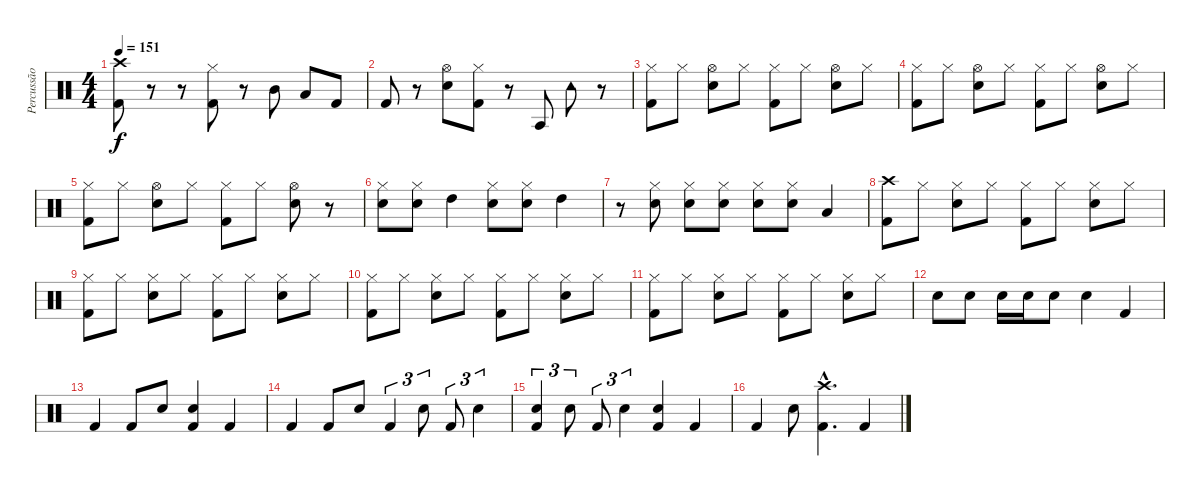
\track ("Percussão" "Percussão") {instrument percussion}
\staff {score}
\articulation defaults
\ts (4 4)
\tempo 151
\clef neutral
\ks c
("Kick (hit) 2" "Crash high (hit)").8{dy f} r.8 r.8 ("Kick (hit) 2" "Hi-Hat (closed)").8 r.8 "Mid Tom (hit)".8 "Low Tom (hit)".8 "Kick (hit) 2".8 |
"Kick (hit) 2".8 r.8 ("Snare (hit) 2" "Hi-Hat (open)").8 ("Kick (hit) 2" "Hi-Hat (closed)").8 r.8 "Agogo tow (hit)".8 "Tambourine (hit)".8 r.8 |
("Kick (hit) 2" "Hi-Hat (closed)").8 "Hi-Hat (closed)".8 ("Snare (hit) 2" "Hi-Hat (open)").8 "Hi-Hat (closed)".8 ("Kick (hit) 2" "Hi-Hat (closed)").8 "Hi-Hat (closed)".8 ("Snare (hit) 2" "Hi-Hat (open)").8 "Hi-Hat (closed)".8 |
("Kick (hit) 2" "Hi-Hat (closed)").8 "Hi-Hat (closed)".8 ("Snare (hit) 2" "Hi-Hat (open)").8 "Hi-Hat (closed)".8 ("Kick (hit) 2" "Hi-Hat (closed)").8 "Hi-Hat (closed)".8 ("Snare (hit) 2" "Hi-Hat (open)").8 "Hi-Hat (closed)".8 |
("Kick (hit) 2" "Hi-Hat (closed)").8 "Hi-Hat (closed)".8 ("Snare (hit) 2" "Hi-Hat (open)").8 "Hi-Hat (closed)".8 ("Kick (hit) 2" "Hi-Hat (closed)").8 "Hi-Hat (closed)".8 ("Snare (hit) 2" "Hi-Hat (open)").8 r.8 |
("Snare (hit) 2" "Hi-Hat (closed)").8 ("Snare (hit) 2" "Hi-Hat (closed)").8 "High Tom (hit)".4 ("Snare (hit) 2" "Hi-Hat (closed)").8 ("Snare (hit) 2" "Hi-Hat (closed)").8 "High Tom (hit)".4 |
r.8 ("Snare (hit) 2" "Hi-Hat (closed)").8 ("Snare (hit) 2" "Hi-Hat (closed)").8 ("Snare (hit) 2" "Hi-Hat (closed)").8 ("Snare (hit) 2" "Hi-Hat (closed)").8 ("Snare (hit) 2" "Hi-Hat (closed)").8 "Low Tom (hit)".4 |
("Kick (hit) 2" "Crash high (hit)").8 "Hi-Hat (closed)".8 ("Snare (hit) 2" "Hi-Hat (closed)").8 "Hi-Hat (closed)".8 ("Kick (hit) 2" "Hi-Hat (closed)").8 "Hi-Hat (closed)".8 ("Snare (hit) 2" "Hi-Hat (closed)").8 "Hi-Hat (closed)".8 |
("Kick (hit) 2" "Hi-Hat (closed)").8 "Hi-Hat (closed)".8 ("Snare (hit) 2" "Hi-Hat (closed)").8 "Hi-Hat (closed)".8 ("Kick (hit) 2" "Hi-Hat (closed)").8 "Hi-Hat (closed)".8 ("Snare (hit) 2" "Hi-Hat (closed)").8 "Hi-Hat (closed)".8 |
("Kick (hit) 2" "Hi-Hat (closed)").8 "Hi-Hat (closed)".8 ("Snare (hit) 2" "Hi-Hat (closed)").8 "Hi-Hat (closed)".8 ("Kick (hit) 2" "Hi-Hat (closed)").8 "Hi-Hat (closed)".8 ("Snare (hit) 2" "Hi-Hat (closed)").8 "Hi-Hat (closed)".8 |
("Kick (hit) 2" "Hi-Hat (closed)").8 "Hi-Hat (closed)".8 ("Snare (hit) 2" "Hi-Hat (closed)").8 "Hi-Hat (closed)".8 ("Kick (hit) 2" "Hi-Hat (closed)").8 "Hi-Hat (closed)".8 ("Snare (hit) 2" "Hi-Hat (closed)").8 "Hi-Hat (closed)".8 |
"Snare (hit) 2".8 "Snare (hit) 2".8 "Snare (hit) 2".16 "Snare (hit) 2".16 "Snare (hit) 2".8 "Snare (hit) 2".4 "Kick (hit) 2".4 |
"Kick (hit) 2".4 "Kick (hit) 2".8 "Snare (hit) 2".8 ("Kick (hit) 2" "Snare (hit) 2").4 "Kick (hit) 2".4 |
"Kick (hit) 2".4 "Kick (hit) 2".8 "Snare (hit) 2".8 "Kick (hit) 2".4{tu (3 2)} "Snare (hit) 2".8{tu (3 2)} "Kick (hit) 2".8{tu (3 2)} "Snare (hit) 2".4{tu (3 2)} |
("Kick (hit) 2" "Snare (hit) 2").4{tu (3 2)} "Snare (hit) 2".8{tu (3 2)} "Kick (hit) 2".8{tu (3 2)} "Snare (hit) 2".4{tu (3 2)} ("Kick (hit) 2" "Snare (hit) 2").4 "Kick (hit) 2".4 |
"Kick (hit) 2".4 "Snare (hit) 2".8 ("Kick (hit) 2"{hac} "Crash high (hit)"{hac}).4{d} "Kick (hit) 2".4
